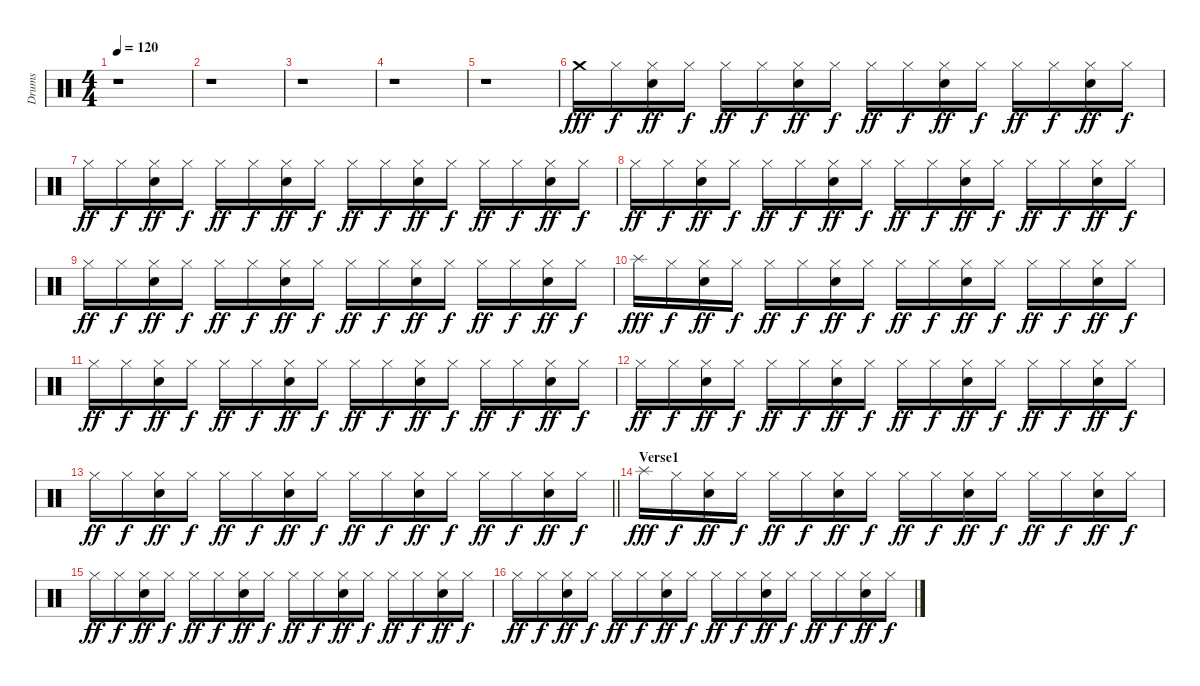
\track ("Drums" "Drums") {instrument percussion}
\staff {score}
\articulation defaults
\ts (4 4)
\tempo 120
\clef neutral
\ks c
r.1{dy fff} |
r.1 |
r.1 |
r.1 |
r.1 |
"Crash medium (hit)".16 "Hi-Hat (closed)".16{dy f} ("Hi-Hat (closed)" "Snare (hit) 2").16{dy ff} "Hi-Hat (closed)".16{dy f} "Hi-Hat (closed)".16{dy ff} "Hi-Hat (closed)".16{dy f} ("Hi-Hat (closed)" "Snare (hit) 2").16{dy ff} "Hi-Hat (closed)".16{dy f} "Hi-Hat (closed)".16{dy ff} "Hi-Hat (closed)".16{dy f} ("Hi-Hat (closed)" "Snare (hit) 2").16{dy ff} "Hi-Hat (closed)".16{dy f} "Hi-Hat (closed)".16{dy ff} "Hi-Hat (closed)".16{dy f} ("Hi-Hat (closed)" "Snare (hit) 2").16{dy ff} "Hi-Hat (closed)".16{dy f} |
"Hi-Hat (closed)".16{dy ff} "Hi-Hat (closed)".16{dy f} ("Hi-Hat (closed)" "Snare (hit) 2").16{dy ff} "Hi-Hat (closed)".16{dy f} "Hi-Hat (closed)".16{dy ff} "Hi-Hat (closed)".16{dy f} ("Hi-Hat (closed)" "Snare (hit) 2").16{dy ff} "Hi-Hat (closed)".16{dy f} "Hi-Hat (closed)".16{dy ff} "Hi-Hat (closed)".16{dy f} ("Hi-Hat (closed)" "Snare (hit) 2").16{dy ff} "Hi-Hat (closed)".16{dy f} "Hi-Hat (closed)".16{dy ff} "Hi-Hat (closed)".16{dy f} ("Hi-Hat (closed)" "Snare (hit) 2").16{dy ff} "Hi-Hat (closed)".16{dy f} |
"Hi-Hat (closed)".16{dy ff} "Hi-Hat (closed)".16{dy f} ("Hi-Hat (closed)" "Snare (hit) 2").16{dy ff} "Hi-Hat (closed)".16{dy f} "Hi-Hat (closed)".16{dy ff} "Hi-Hat (closed)".16{dy f} ("Hi-Hat (closed)" "Snare (hit) 2").16{dy ff} "Hi-Hat (closed)".16{dy f} "Hi-Hat (closed)".16{dy ff} "Hi-Hat (closed)".16{dy f} ("Hi-Hat (closed)" "Snare (hit) 2").16{dy ff} "Hi-Hat (closed)".16{dy f} "Hi-Hat (closed)".16{dy ff} "Hi-Hat (closed)".16{dy f} ("Hi-Hat (closed)" "Snare (hit) 2").16{dy ff} "Hi-Hat (closed)".16{dy f} |
"Hi-Hat (closed)".16{dy ff} "Hi-Hat (closed)".16{dy f} ("Hi-Hat (closed)" "Snare (hit) 2").16{dy ff} "Hi-Hat (closed)".16{dy f} "Hi-Hat (closed)".16{dy ff} "Hi-Hat (closed)".16{dy f} ("Hi-Hat (closed)" "Snare (hit) 2").16{dy ff} "Hi-Hat (closed)".16{dy f} "Hi-Hat (closed)".16{dy ff} "Hi-Hat (closed)".16{dy f} ("Hi-Hat (closed)" "Snare (hit) 2").16{dy ff} "Hi-Hat (closed)".16{dy f} "Hi-Hat (closed)".16{dy ff} "Hi-Hat (closed)".16{dy f} ("Hi-Hat (closed)" "Snare (hit) 2").16{dy ff} "Hi-Hat (closed)".16{dy f} |
"Splash (hit)".16{dy fff} "Hi-Hat (closed)".16{dy f} ("Hi-Hat (closed)" "Snare (hit) 2").16{dy ff} "Hi-Hat (closed)".16{dy f} "Hi-Hat (closed)".16{dy ff} "Hi-Hat (closed)".16{dy f} ("Hi-Hat (closed)" "Snare (hit) 2").16{dy ff} "Hi-Hat (closed)".16{dy f} "Hi-Hat (closed)".16{dy ff} "Hi-Hat (closed)".16{dy f} ("Hi-Hat (closed)" "Snare (hit) 2").16{dy ff} "Hi-Hat (closed)".16{dy f} "Hi-Hat (closed)".16{dy ff} "Hi-Hat (closed)".16{dy f} ("Hi-Hat (closed)" "Snare (hit) 2").16{dy ff} "Hi-Hat (closed)".16{dy f} |
"Hi-Hat (closed)".16{dy ff} "Hi-Hat (closed)".16{dy f} ("Hi-Hat (closed)" "Snare (hit) 2").16{dy ff} "Hi-Hat (closed)".16{dy f} "Hi-Hat (closed)".16{dy ff} "Hi-Hat (closed)".16{dy f} ("Hi-Hat (closed)" "Snare (hit) 2").16{dy ff} "Hi-Hat (closed)".16{dy f} "Hi-Hat (closed)".16{dy ff} "Hi-Hat (closed)".16{dy f} ("Hi-Hat (closed)" "Snare (hit) 2").16{dy ff} "Hi-Hat (closed)".16{dy f} "Hi-Hat (closed)".16{dy ff} "Hi-Hat (closed)".16{dy f} ("Hi-Hat (closed)" "Snare (hit) 2").16{dy ff} "Hi-Hat (closed)".16{dy f} |
"Hi-Hat (closed)".16{dy ff} "Hi-Hat (closed)".16{dy f} ("Hi-Hat (closed)" "Snare (hit) 2").16{dy ff} "Hi-Hat (closed)".16{dy f} "Hi-Hat (closed)".16{dy ff} "Hi-Hat (closed)".16{dy f} ("Hi-Hat (closed)" "Snare (hit) 2").16{dy ff} "Hi-Hat (closed)".16{dy f} "Hi-Hat (closed)".16{dy ff} "Hi-Hat (closed)".16{dy f} ("Hi-Hat (closed)" "Snare (hit) 2").16{dy ff} "Hi-Hat (closed)".16{dy f} "Hi-Hat (closed)".16{dy ff} "Hi-Hat (closed)".16{dy f} ("Hi-Hat (closed)" "Snare (hit) 2").16{dy ff} "Hi-Hat (closed)".16{dy f} |
\barLineRight lightlight "Hi-Hat (closed)".16{dy ff} "Hi-Hat (closed)".16{dy f}
("Hi-Hat (closed)" "Snare (hit) 2").16{dy ff} "Hi-Hat (closed)".16{dy f} "Hi-Hat (closed)".16{dy ff} "Hi-Hat (closed)".16{dy f} ("Hi-Hat (closed)" "Snare (hit) 2").16{dy ff} "Hi-Hat (closed)".16{dy f} "Hi-Hat (closed)".16{dy ff} "Hi-Hat (closed)".16{dy f} ("Hi-Hat (closed)" "Snare (hit) 2").16{dy ff} "Hi-Hat (closed)".16{dy f} "Hi-Hat (closed)".16{dy ff} "Hi-Hat (closed)".16{dy f} ("Hi-Hat (closed)" "Snare (hit) 2").16{dy ff} "Hi-Hat (closed)".16{dy f} |
\section ("" "Verse1")
"Splash (hit)".16{dy fff} "Hi-Hat (closed)".16{dy f} ("Hi-Hat (closed)" "Snare (hit) 2").16{dy ff} "Hi-Hat (closed)".16{dy f} "Hi-Hat (closed)".16{dy ff} "Hi-Hat (closed)".16{dy f} ("Hi-Hat (closed)" "Snare (hit) 2").16{dy ff} "Hi-Hat (closed)".16{dy f} "Hi-Hat (closed)".16{dy ff} "Hi-Hat (closed)".16{dy f} ("Hi-Hat (closed)" "Snare (hit) 2").16{dy ff} "Hi-Hat (closed)".16{dy f} "Hi-Hat (closed)".16{dy ff} "Hi-Hat (closed)".16{dy f} ("Hi-Hat (closed)" "Snare (hit) 2").16{dy ff} "Hi-Hat (closed)".16{dy f} |
"Hi-Hat (closed)".16{dy ff} "Hi-Hat (closed)".16{dy f} ("Hi-Hat (closed)" "Snare (hit) 2").16{dy ff} "Hi-Hat (closed)".16{dy f} "Hi-Hat (closed)".16{dy ff} "Hi-Hat (closed)".16{dy f} ("Hi-Hat (closed)" "Snare (hit) 2").16{dy ff} "Hi-Hat (closed)".16{dy f} "Hi-Hat (closed)".16{dy ff} "Hi-Hat (closed)".16{dy f} ("Hi-Hat (closed)" "Snare (hit) 2").16{dy ff} "Hi-Hat (closed)".16{dy f} "Hi-Hat (closed)".16{dy ff} "Hi-Hat (closed)".16{dy f} ("Hi-Hat (closed)" "Snare (hit) 2").16{dy ff} "Hi-Hat (closed)".16{dy f} |
"Hi-Hat (closed)".16{dy ff} "Hi-Hat (closed)".16{dy f} ("Hi-Hat (closed)" "Snare (hit) 2").16{dy ff} "Hi-Hat (closed)".16{dy f} "Hi-Hat (closed)".16{dy ff} "Hi-Hat (closed)".16{dy f} ("Hi-Hat (closed)" "Snare (hit) 2").16{dy ff} "Hi-Hat (closed)".16{dy f} "Hi-Hat (closed)".16{dy ff} "Hi-Hat (closed)".16{dy f} ("Hi-Hat (closed)" "Snare (hit) 2").16{dy ff} "Hi-Hat (closed)".16{dy f} "Hi-Hat (closed)".16{dy ff} "Hi-Hat (closed)".16{dy f} ("Hi-Hat (closed)" "Snare (hit) 2").16{dy ff} "Hi-Hat (closed)".16{dy f}
